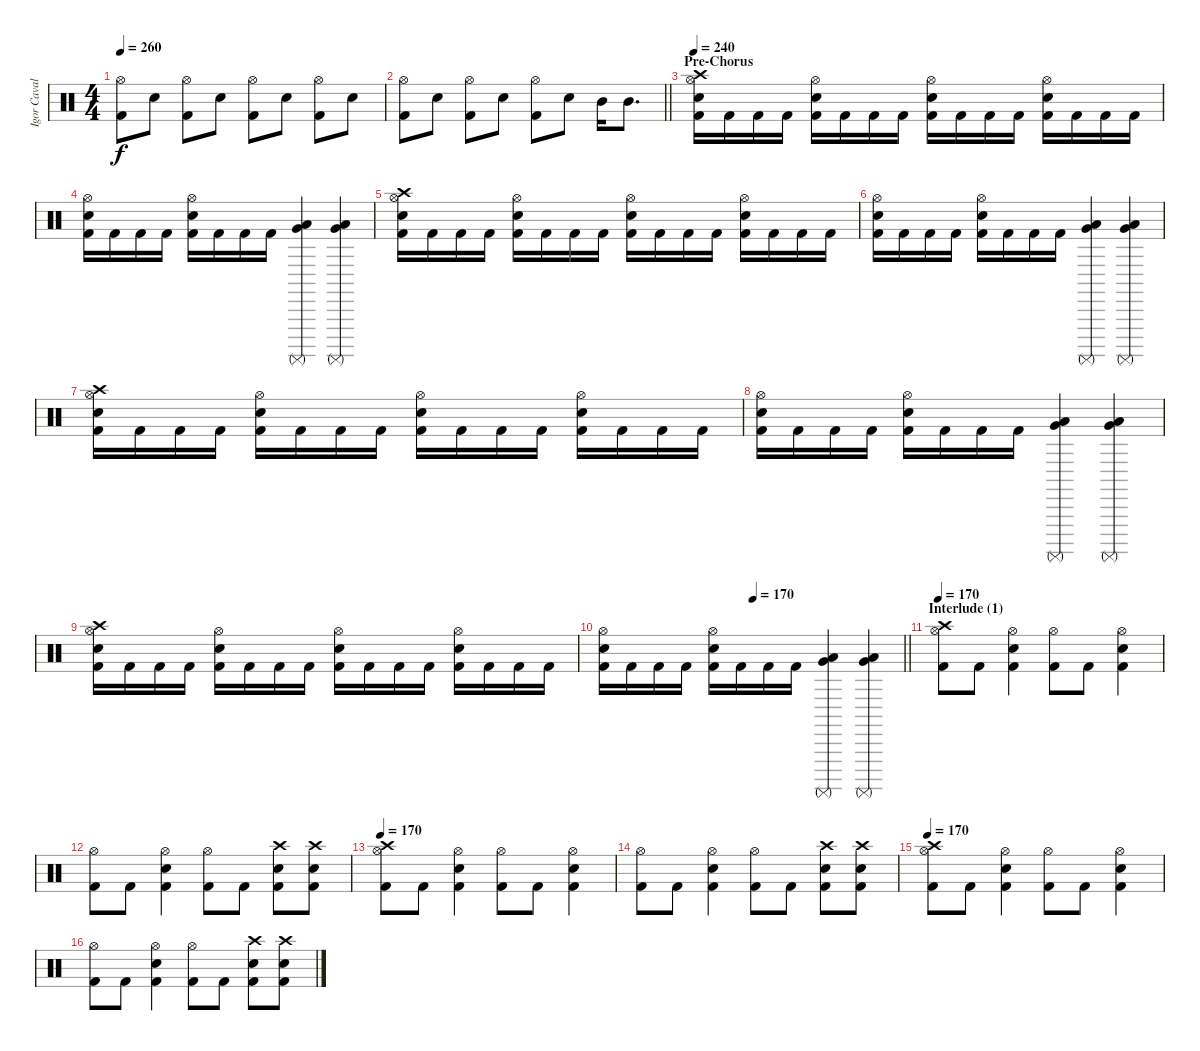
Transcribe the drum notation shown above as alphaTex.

\track ("Igor Cavalera" "Igor Caval") {instrument percussion}
\staff {score}
\articulation defaults
\ts (4 4)
\tempo 260
\clef neutral
\ks c
("Hi-Hat (open)" "Kick (hit) 2").8{dy f} "Electric Snare (hit)".8 ("Hi-Hat (open)" "Kick (hit) 2").8 "Electric Snare (hit)".8 ("Hi-Hat (open)" "Kick (hit) 2").8 "Electric Snare (hit)".8 ("Hi-Hat (open)" "Kick (hit) 2").8 "Electric Snare (hit)".8 |
\barLineRight lightlight
("Hi-Hat (open)" "Kick (hit) 2").8 "Electric Snare (hit)".8 ("Hi-Hat (open)" "Kick (hit) 2").8 "Electric Snare (hit)".8 ("Hi-Hat (open)" "Kick (hit) 2").8 "Electric Snare (hit)".8 "Mid Tom (hit)".16 "Mid Tom (hit)".8{d} |
\section ("" "Pre-Chorus")
\tempo 240
("Crash high (hit)" "Hi-Hat (open)" "Electric Snare (hit)" "Kick (hit) 2").16 "Kick (hit) 2".16 "Kick (hit) 2".16 "Kick (hit) 2".16 ("Hi-Hat (open)" "Electric Snare (hit)" "Kick (hit) 2").16 "Kick (hit) 2".16 "Kick (hit) 2".16 "Kick (hit) 2".16 ("Hi-Hat (open)" "Electric Snare (hit)" "Kick (hit) 2").16 "Kick (hit) 2".16 "Kick (hit) 2".16 "Kick (hit) 2".16 ("Hi-Hat (open)" "Electric Snare (hit)" "Kick (hit) 2").16 "Kick (hit) 2".16 "Kick (hit) 2".16 "Kick (hit) 2".16 |
("Hi-Hat (open)" "Electric Snare (hit)" "Kick (hit) 2").16 "Kick (hit) 2".16 "Kick (hit) 2".16 "Kick (hit) 2".16 ("Hi-Hat (open)" "Electric Snare (hit)" "Kick (hit) 2").16 "Kick (hit) 2".16 "Kick (hit) 2".16 "Kick (hit) 2".16 ("Surdo (mute)" "Low Floor Tom (hit)" "Very Low Tom (hit)").4 ("Surdo (mute)" "Low Floor Tom (hit)" "Very Low Tom (hit)").4 |
("Crash high (hit)" "Hi-Hat (open)" "Electric Snare (hit)" "Kick (hit) 2").16 "Kick (hit) 2".16 "Kick (hit) 2".16 "Kick (hit) 2".16 ("Hi-Hat (open)" "Electric Snare (hit)" "Kick (hit) 2").16 "Kick (hit) 2".16 "Kick (hit) 2".16 "Kick (hit) 2".16 ("Hi-Hat (open)" "Electric Snare (hit)" "Kick (hit) 2").16 "Kick (hit) 2".16 "Kick (hit) 2".16 "Kick (hit) 2".16 ("Hi-Hat (open)" "Electric Snare (hit)" "Kick (hit) 2").16 "Kick (hit) 2".16 "Kick (hit) 2".16 "Kick (hit) 2".16 |
("Hi-Hat (open)" "Electric Snare (hit)" "Kick (hit) 2").16 "Kick (hit) 2".16 "Kick (hit) 2".16 "Kick (hit) 2".16 ("Hi-Hat (open)" "Electric Snare (hit)" "Kick (hit) 2").16 "Kick (hit) 2".16 "Kick (hit) 2".16 "Kick (hit) 2".16 ("Surdo (mute)" "Low Floor Tom (hit)" "Very Low Tom (hit)").4 ("Surdo (mute)" "Low Floor Tom (hit)" "Very Low Tom (hit)").4 |
("Crash high (hit)" "Hi-Hat (open)" "Electric Snare (hit)" "Kick (hit) 2").16 "Kick (hit) 2".16 "Kick (hit) 2".16 "Kick (hit) 2".16 ("Hi-Hat (open)" "Electric Snare (hit)" "Kick (hit) 2").16 "Kick (hit) 2".16 "Kick (hit) 2".16 "Kick (hit) 2".16 ("Hi-Hat (open)" "Electric Snare (hit)" "Kick (hit) 2").16 "Kick (hit) 2".16 "Kick (hit) 2".16 "Kick (hit) 2".16 ("Hi-Hat (open)" "Electric Snare (hit)" "Kick (hit) 2").16 "Kick (hit) 2".16 "Kick (hit) 2".16 "Kick (hit) 2".16 |
("Hi-Hat (open)" "Electric Snare (hit)" "Kick (hit) 2").16 "Kick (hit) 2".16 "Kick (hit) 2".16 "Kick (hit) 2".16 ("Hi-Hat (open)" "Electric Snare (hit)" "Kick (hit) 2").16 "Kick (hit) 2".16 "Kick (hit) 2".16 "Kick (hit) 2".16 ("Surdo (mute)" "Low Floor Tom (hit)" "Very Low Tom (hit)").4 ("Surdo (mute)" "Low Floor Tom (hit)" "Very Low Tom (hit)").4 |
("Crash high (hit)" "Hi-Hat (open)" "Electric Snare (hit)" "Kick (hit) 2").16 "Kick (hit) 2".16 "Kick (hit) 2".16 "Kick (hit) 2".16 ("Hi-Hat (open)" "Electric Snare (hit)" "Kick (hit) 2").16 "Kick (hit) 2".16 "Kick (hit) 2".16 "Kick (hit) 2".16 ("Hi-Hat (open)" "Electric Snare (hit)" "Kick (hit) 2").16 "Kick (hit) 2".16 "Kick (hit) 2".16 "Kick (hit) 2".16 ("Hi-Hat (open)" "Electric Snare (hit)" "Kick (hit) 2").16 "Kick (hit) 2".16 "Kick (hit) 2".16 "Kick (hit) 2".16 |
\tempo (170 0.5)
\barLineRight lightlight
("Hi-Hat (open)" "Electric Snare (hit)" "Kick (hit) 2").16 "Kick (hit) 2".16 "Kick (hit) 2".16 "Kick (hit) 2".16 ("Hi-Hat (open)" "Electric Snare (hit)" "Kick (hit) 2").16 "Kick (hit) 2".16 "Kick (hit) 2".16 "Kick (hit) 2".16 ("Surdo (mute)" "Low Floor Tom (hit)" "Very Low Tom (hit)").4 ("Surdo (mute)" "Low Floor Tom (hit)" "Very Low Tom (hit)").4 |
\section ("" "Interlude (1)")
\tempo 170
("Crash high (hit)" "Hi-Hat (open)" "Kick (hit) 2").8 "Kick (hit) 2".8 ("Hi-Hat (open)" "Electric Snare (hit)" "Kick (hit) 2").4 ("Hi-Hat (open)" "Kick (hit) 2").8 "Kick (hit) 2".8 ("Hi-Hat (open)" "Electric Snare (hit)" "Kick (hit) 2").4 |
("Hi-Hat (open)" "Kick (hit) 2").8 "Kick (hit) 2".8 ("Hi-Hat (open)" "Electric Snare (hit)" "Kick (hit) 2").4 ("Hi-Hat (open)" "Kick (hit) 2").8 "Kick (hit) 2".8 ("Crash high (hit)" "Electric Snare (hit)" "Kick (hit) 2").8 ("Crash high (hit)" "Electric Snare (hit)" "Kick (hit) 2").8 |
\tempo 170
("Crash high (hit)" "Hi-Hat (open)" "Kick (hit) 2").8 "Kick (hit) 2".8 ("Hi-Hat (open)" "Electric Snare (hit)" "Kick (hit) 2").4 ("Hi-Hat (open)" "Kick (hit) 2").8 "Kick (hit) 2".8 ("Hi-Hat (open)" "Electric Snare (hit)" "Kick (hit) 2").4 |
("Hi-Hat (open)" "Kick (hit) 2").8 "Kick (hit) 2".8 ("Hi-Hat (open)" "Electric Snare (hit)" "Kick (hit) 2").4 ("Hi-Hat (open)" "Kick (hit) 2").8 "Kick (hit) 2".8 ("Crash high (hit)" "Electric Snare (hit)" "Kick (hit) 2").8 ("Crash high (hit)" "Electric Snare (hit)" "Kick (hit) 2").8 |
\tempo 170
("Crash high (hit)" "Hi-Hat (open)" "Kick (hit) 2").8 "Kick (hit) 2".8 ("Hi-Hat (open)" "Electric Snare (hit)" "Kick (hit) 2").4 ("Hi-Hat (open)" "Kick (hit) 2").8 "Kick (hit) 2".8 ("Hi-Hat (open)" "Electric Snare (hit)" "Kick (hit) 2").4 |
("Hi-Hat (open)" "Kick (hit) 2").8 "Kick (hit) 2".8 ("Hi-Hat (open)" "Electric Snare (hit)" "Kick (hit) 2").4 ("Hi-Hat (open)" "Kick (hit) 2").8 "Kick (hit) 2".8 ("Crash high (hit)" "Electric Snare (hit)" "Kick (hit) 2").8 ("Crash high (hit)" "Electric Snare (hit)" "Kick (hit) 2").8
